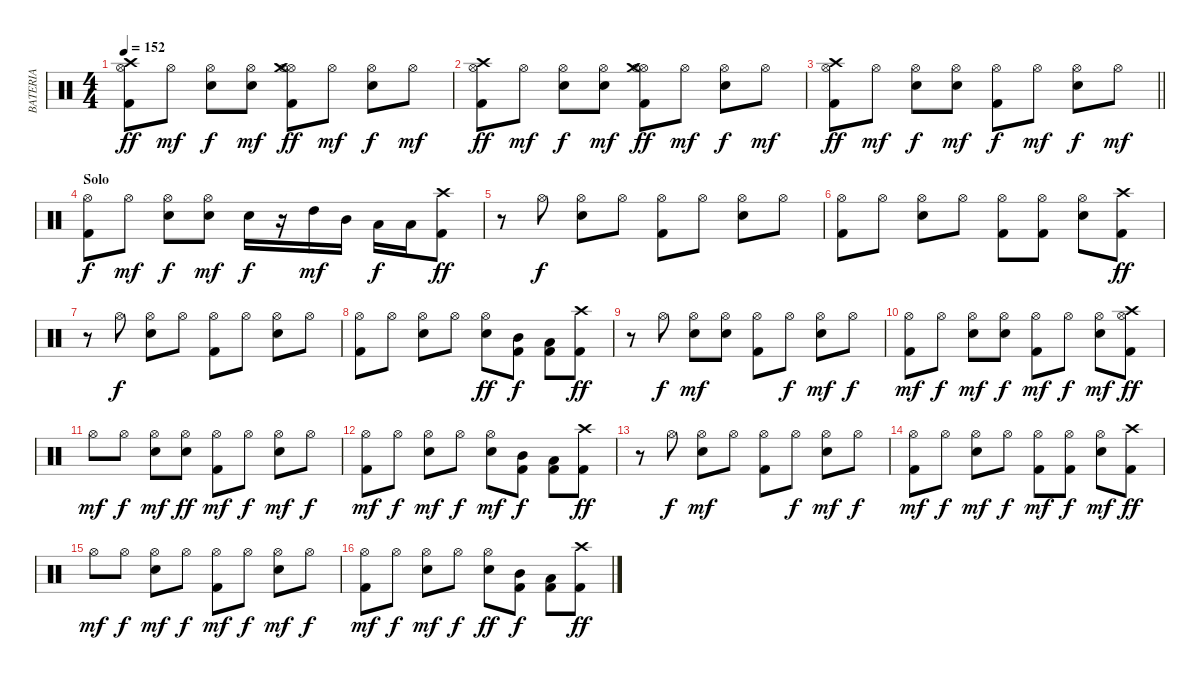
\track ("BATERIA" "BATERIA") {instrument percussion}
\staff {score}
\articulation defaults
\ts (4 4)
\tempo 152
\clef neutral
\ks c
("Kick (hit) 2" "Crash high (hit)" "Hi-Hat (open)").8{dy ff} "Hi-Hat (open)".8{dy mf} ("Snare (hit) 2" "Hi-Hat (open)").8{dy f} ("Snare (hit) 2" "Hi-Hat (open)").8{dy mf} ("Kick (hit) 2" "Hi-Hat (open)" "Hi-Hat (open)" "Crash medium (hit)").8{dy ff} "Hi-Hat (open)".8{dy mf} ("Snare (hit) 2" "Hi-Hat (open)").8{dy f} "Hi-Hat (open)".8{dy mf} |
("Kick (hit) 2" "Crash high (hit)" "Hi-Hat (open)").8{dy ff} "Hi-Hat (open)".8{dy mf} ("Snare (hit) 2" "Hi-Hat (open)").8{dy f} ("Snare (hit) 2" "Hi-Hat (open)").8{dy mf} ("Kick (hit) 2" "Hi-Hat (open)" "Hi-Hat (open)" "Crash medium (hit)").8{dy ff} "Hi-Hat (open)".8{dy mf} ("Snare (hit) 2" "Hi-Hat (open)").8{dy f} "Hi-Hat (open)".8{dy mf} |
\barLineRight lightlight
("Kick (hit) 2" "Crash high (hit)" "Hi-Hat (open)").8{dy ff} "Hi-Hat (open)".8{dy mf} ("Snare (hit) 2" "Hi-Hat (open)").8{dy f} ("Snare (hit) 2" "Hi-Hat (open)").8{dy mf} ("Kick (hit) 2" "Hi-Hat (open)").8{dy f} "Hi-Hat (open)".8{dy mf} ("Snare (hit) 2" "Hi-Hat (open)").8{dy f} "Hi-Hat (open)".8{dy mf} |
\section ("" "Solo")
("Hi-Hat (open)" "Kick (hit) 2").8{dy f} "Hi-Hat (open)".8{dy mf} ("Hi-Hat (open)" "Snare (hit) 2").8{dy f} ("Snare (hit) 2" "Hi-Hat (open)").8{dy mf} "Snare (hit) 2".16{dy f} r.16 "High Tom (hit)".16{dy mf} "Mid Tom (hit)".16 "Low Tom (hit)".16{dy f} "Low Tom (hit)".16 ("Crash high (hit)" "Kick (hit) 2").8{dy ff} |
r.8 "Hi-Hat (open)".8{dy f} ("Snare (hit) 2" "Hi-Hat (open)").8 "Hi-Hat (open)".8 ("Hi-Hat (open)" "Kick (hit) 2").8 "Hi-Hat (open)".8 ("Hi-Hat (open)" "Snare (hit) 2").8 "Hi-Hat (open)".8 |
("Hi-Hat (open)" "Kick (hit) 2").8 "Hi-Hat (open)".8 ("Hi-Hat (open)" "Snare (hit) 2").8 "Hi-Hat (open)".8 ("Hi-Hat (open)" "Kick (hit) 2").8 ("Hi-Hat (open)" "Kick (hit) 2").8 ("Hi-Hat (open)" "Snare (hit) 2").8 ("Crash high (hit)" "Kick (hit) 2").8{dy ff} |
r.8 "Hi-Hat (open)".8{dy f} ("Hi-Hat (open)" "Snare (hit) 2").8 "Hi-Hat (open)".8 ("Hi-Hat (open)" "Kick (hit) 2").8 "Hi-Hat (open)".8 ("Hi-Hat (open)" "Snare (hit) 2").8 "Hi-Hat (open)".8 |
("Hi-Hat (open)" "Kick (hit) 2").8 "Hi-Hat (open)".8 ("Hi-Hat (open)" "Snare (hit) 2").8 "Hi-Hat (open)".8 ("Hi-Hat (open)" "Snare (hit) 2").8{dy ff} ("Kick (hit) 2" "Mid Tom (hit)").8{dy f} ("Kick (hit) 2" "Low Tom (hit)").8 ("Crash high (hit)" "Kick (hit) 2").8{dy ff} |
r.8 "Hi-Hat (open)".8{dy f} ("Snare (hit) 2" "Hi-Hat (open)").8{dy mf} ("Snare (hit) 2" "Hi-Hat (open)").8 ("Hi-Hat (open)" "Kick (hit) 2").8 "Hi-Hat (open)".8{dy f} ("Hi-Hat (open)" "Snare (hit) 2").8{dy mf} "Hi-Hat (open)".8{dy f} |
("Hi-Hat (open)" "Kick (hit) 2").8{dy mf} "Hi-Hat (open)".8{dy f} ("Snare (hit) 2" "Hi-Hat (open)").8{dy mf} ("Snare (hit) 2" "Hi-Hat (open)").8{dy f} ("Hi-Hat (open)" "Kick (hit) 2").8{dy mf} "Hi-Hat (open)".8{dy f} ("Hi-Hat (open)" "Snare (hit) 2").8{dy mf} ("Kick (hit) 2" "Crash high (hit)" "Hi-Hat (open)").8{dy ff} |
"Hi-Hat (open)".8{dy mf} "Hi-Hat (open)".8{dy f} ("Snare (hit) 2" "Hi-Hat (open)").8{dy mf} ("Snare (hit) 2" "Hi-Hat (open)").8{dy ff} ("Hi-Hat (open)" "Kick (hit) 2").8{dy mf} "Hi-Hat (open)".8{dy f} ("Hi-Hat (open)" "Snare (hit) 2").8{dy mf} "Hi-Hat (open)".8{dy f} |
("Kick (hit) 2" "Hi-Hat (open)").8{dy mf} "Hi-Hat (open)".8{dy f} ("Snare (hit) 2" "Hi-Hat (open)").8{dy mf} "Hi-Hat (open)".8{dy f} ("Snare (hit) 2" "Hi-Hat (open)").8{dy mf} ("Kick (hit) 2" "Mid Tom (hit)").8{dy f} ("Kick (hit) 2" "Low Tom (hit)").8 ("Kick (hit) 2" "Crash high (hit)").8{dy ff} |
r.8 "Hi-Hat (open)".8{dy f} ("Snare (hit) 2" "Hi-Hat (open)").8{dy mf} "Hi-Hat (open)".8 ("Kick (hit) 2" "Hi-Hat (open)").8 "Hi-Hat (open)".8{dy f} ("Snare (hit) 2" "Hi-Hat (open)").8{dy mf} "Hi-Hat (open)".8{dy f} |
("Kick (hit) 2" "Hi-Hat (open)").8{dy mf} "Hi-Hat (open)".8{dy f} ("Snare (hit) 2" "Hi-Hat (open)").8{dy mf} "Hi-Hat (open)".8{dy f} ("Kick (hit) 2" "Hi-Hat (open)").8{dy mf} ("Kick (hit) 2" "Hi-Hat (open)").8{dy f} ("Snare (hit) 2" "Hi-Hat (open)").8{dy mf} ("Kick (hit) 2" "Crash high (hit)").8{dy ff} |
"Hi-Hat (open)".8{dy mf} "Hi-Hat (open)".8{dy f} ("Snare (hit) 2" "Hi-Hat (open)").8{dy mf} "Hi-Hat (open)".8{dy f} ("Kick (hit) 2" "Hi-Hat (open)").8{dy mf} "Hi-Hat (open)".8{dy f} ("Snare (hit) 2" "Hi-Hat (open)").8{dy mf} "Hi-Hat (open)".8{dy f} |
("Kick (hit) 2" "Hi-Hat (open)").8{dy mf} "Hi-Hat (open)".8{dy f} ("Snare (hit) 2" "Hi-Hat (open)").8{dy mf} "Hi-Hat (open)".8{dy f} ("Hi-Hat (open)" "Snare (hit) 2").8{dy ff} ("Kick (hit) 2" "Mid Tom (hit)").8{dy f} ("Kick (hit) 2" "Low Tom (hit)").8 ("Kick (hit) 2" "Crash high (hit)").8{dy ff}
